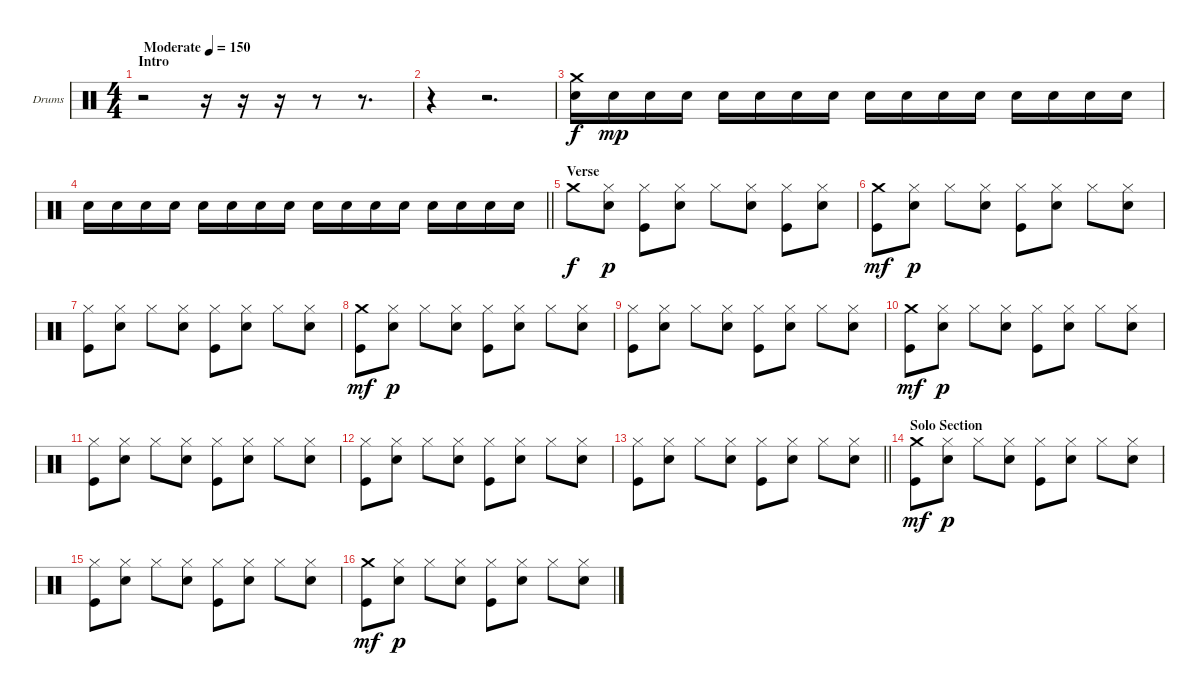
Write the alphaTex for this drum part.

\bracketExtendMode groupsimilarinstruments
\firstSystemTrackNameOrientation horizontal
\otherSystemsTrackNameOrientation horizontal
\track ("Drumkit" "Drums") {instrument percussion}
\staff {score}
\articulation defaults
\ts (4 4)
\beaming (8 2 2 2 2)
\section ("" "Intro")
\tempo (150 "Moderate")
\clef neutral
\ks c
r.2{dy f} r.16 r.16 r.16 r.8 r.8{d} |
r.4 r.2{d} |
("Crash medium (hit)" "Snare (hit) 2").16 "Snare (hit) 2".16{dy mp} "Snare (hit) 2".16 "Snare (hit) 2".16 "Snare (hit) 2".16 "Snare (hit) 2".16 "Snare (hit) 2".16 "Snare (hit) 2".16 "Snare (hit) 2".16 "Snare (hit) 2".16 "Snare (hit) 2".16 "Snare (hit) 2".16 "Snare (hit) 2".16 "Snare (hit) 2".16 "Snare (hit) 2".16 "Snare (hit) 2".16 |
\barLineRight lightlight "Snare (hit) 2".16 "Snare (hit) 2".16 "Snare (hit) 2".16 "Snare (hit) 2".16 "Snare (hit) 2".16 "Snare (hit) 2".16 "Snare (hit) 2".16 "Snare (hit) 2".16 "Snare (hit) 2".16 "Snare (hit) 2".16 "Snare (hit) 2".16 "Snare (hit) 2".16 "Snare (hit) 2".16 "Snare (hit) 2".16 "Snare (hit) 2".16 "Snare (hit) 2".16
|
\section ("" "Verse")
"Crash medium (hit)".8{dy f} ("Hi-Hat (closed)" "Snare (hit) 2").8{dy p} ("Hi-Hat (closed)" "Kick (hit)").8 ("Hi-Hat (closed)" "Snare (hit) 2").8 "Hi-Hat (closed)".8 ("Hi-Hat (closed)" "Snare (hit) 2").8 ("Hi-Hat (closed)" "Kick (hit)").8 ("Hi-Hat (closed)" "Snare (hit) 2").8 |
("Crash medium (hit)" "Kick (hit)").8{dy mf} ("Hi-Hat (closed)" "Snare (hit) 2").8{dy p} "Hi-Hat (closed)".8 ("Hi-Hat (closed)" "Snare (hit) 2").8 ("Hi-Hat (closed)" "Kick (hit)").8 ("Hi-Hat (closed)" "Snare (hit) 2").8 "Hi-Hat (closed)".8 ("Hi-Hat (closed)" "Snare (hit) 2").8 |
("Hi-Hat (closed)" "Kick (hit)").8 ("Hi-Hat (closed)" "Snare (hit) 2").8 "Hi-Hat (closed)".8 ("Hi-Hat (closed)" "Snare (hit) 2").8 ("Hi-Hat (closed)" "Kick (hit)").8 ("Hi-Hat (closed)" "Snare (hit) 2").8 "Hi-Hat (closed)".8 ("Hi-Hat (closed)" "Snare (hit) 2").8 |
("Crash medium (hit)" "Kick (hit)").8{dy mf} ("Hi-Hat (closed)" "Snare (hit) 2").8{dy p} "Hi-Hat (closed)".8 ("Hi-Hat (closed)" "Snare (hit) 2").8 ("Hi-Hat (closed)" "Kick (hit)").8 ("Hi-Hat (closed)" "Snare (hit) 2").8 "Hi-Hat (closed)".8 ("Hi-Hat (closed)" "Snare (hit) 2").8 |
("Hi-Hat (closed)" "Kick (hit)").8 ("Hi-Hat (closed)" "Snare (hit) 2").8 "Hi-Hat (closed)".8 ("Hi-Hat (closed)" "Snare (hit) 2").8 ("Hi-Hat (closed)" "Kick (hit)").8 ("Hi-Hat (closed)" "Snare (hit) 2").8 "Hi-Hat (closed)".8 ("Hi-Hat (closed)" "Snare (hit) 2").8 |
("Crash medium (hit)" "Kick (hit)").8{dy mf} ("Hi-Hat (closed)" "Snare (hit) 2").8{dy p} "Hi-Hat (closed)".8 ("Hi-Hat (closed)" "Snare (hit) 2").8 ("Hi-Hat (closed)" "Kick (hit)").8 ("Hi-Hat (closed)" "Snare (hit) 2").8 "Hi-Hat (closed)".8 ("Hi-Hat (closed)" "Snare (hit) 2").8 |
("Hi-Hat (closed)" "Kick (hit)").8 ("Hi-Hat (closed)" "Snare (hit) 2").8 "Hi-Hat (closed)".8 ("Hi-Hat (closed)" "Snare (hit) 2").8 ("Hi-Hat (closed)" "Kick (hit)").8 ("Hi-Hat (closed)" "Snare (hit) 2").8 "Hi-Hat (closed)".8 ("Hi-Hat (closed)" "Snare (hit) 2").8 |
("Hi-Hat (closed)" "Kick (hit)").8 ("Hi-Hat (closed)" "Snare (hit) 2").8 "Hi-Hat (closed)".8 ("Hi-Hat (closed)" "Snare (hit) 2").8 ("Hi-Hat (closed)" "Kick (hit)").8 ("Hi-Hat (closed)" "Snare (hit) 2").8 "Hi-Hat (closed)".8 ("Hi-Hat (closed)" "Snare (hit) 2").8 |
\barLineRight lightlight
("Hi-Hat (closed)" "Kick (hit)").8 ("Hi-Hat (closed)" "Snare (hit) 2").8 "Hi-Hat (closed)".8 ("Hi-Hat (closed)" "Snare (hit) 2").8 ("Hi-Hat (closed)" "Kick (hit)").8 ("Hi-Hat (closed)" "Snare (hit) 2").8 "Hi-Hat (closed)".8 ("Hi-Hat (closed)" "Snare (hit) 2").8 |
\section ("" "Solo Section")
("Crash medium (hit)" "Kick (hit)").8{dy mf} ("Hi-Hat (closed)" "Snare (hit) 2").8{dy p} "Hi-Hat (closed)".8 ("Hi-Hat (closed)" "Snare (hit) 2").8 ("Hi-Hat (closed)" "Kick (hit)").8 ("Hi-Hat (closed)" "Snare (hit) 2").8 "Hi-Hat (closed)".8 ("Hi-Hat (closed)" "Snare (hit) 2").8 |
("Hi-Hat (closed)" "Kick (hit)").8 ("Hi-Hat (closed)" "Snare (hit) 2").8 "Hi-Hat (closed)".8 ("Hi-Hat (closed)" "Snare (hit) 2").8 ("Hi-Hat (closed)" "Kick (hit)").8 ("Hi-Hat (closed)" "Snare (hit) 2").8 "Hi-Hat (closed)".8 ("Hi-Hat (closed)" "Snare (hit) 2").8 |
("Crash medium (hit)" "Kick (hit)").8{dy mf} ("Hi-Hat (closed)" "Snare (hit) 2").8{dy p} "Hi-Hat (closed)".8 ("Hi-Hat (closed)" "Snare (hit) 2").8 ("Hi-Hat (closed)" "Kick (hit)").8 ("Hi-Hat (closed)" "Snare (hit) 2").8 "Hi-Hat (closed)".8 ("Hi-Hat (closed)" "Snare (hit) 2").8
